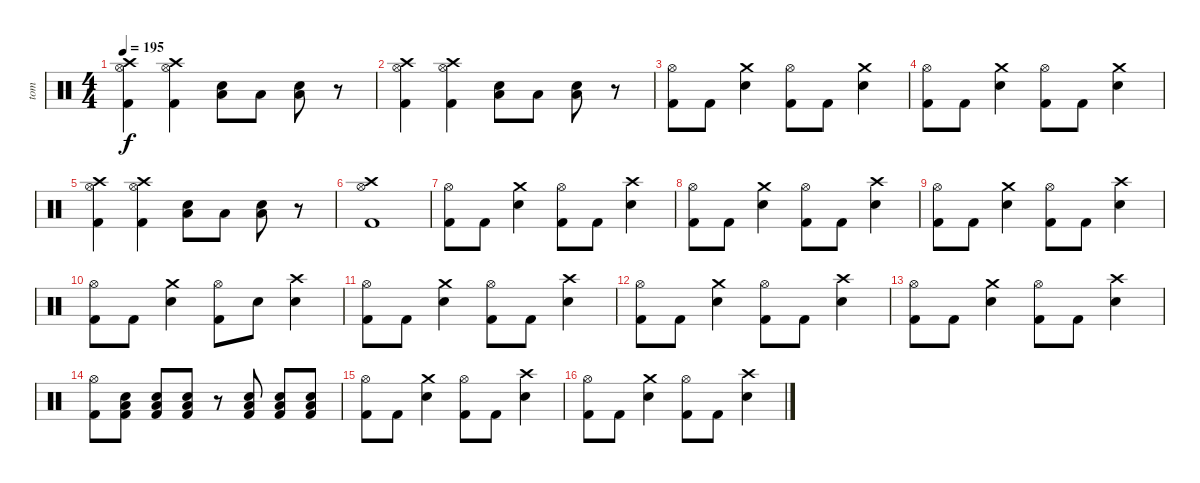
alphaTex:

\track ("tom" "tom") {instrument percussion}
\staff {score}
\articulation defaults
\ts (4 4)
\tempo 195
\clef neutral
\ks c
("Crash high (hit)" "Hi-Hat (open)" "Kick (hit) 2").4{dy f} ("Crash high (hit)" "Hi-Hat (open)" "Kick (hit) 2").4 ("Low Tom (hit)" "Electric Snare (hit)").8 "Low Tom (hit)".8 ("Low Tom (hit)" "Electric Snare (hit)").8 r.8 |
("Crash high (hit)" "Hi-Hat (open)" "Kick (hit) 2").4 ("Crash high (hit)" "Hi-Hat (open)" "Kick (hit) 2").4 ("Low Tom (hit)" "Electric Snare (hit)").8 "Low Tom (hit)".8 ("Low Tom (hit)" "Electric Snare (hit)").8 r.8 |
("Hi-Hat (open)" "Kick (hit) 2").8 "Kick (hit) 2".8 ("Crash medium (hit)" "Electric Snare (hit)").4 ("Hi-Hat (open)" "Kick (hit) 2").8 "Kick (hit) 2".8 ("Crash medium (hit)" "Electric Snare (hit)").4 |
("Hi-Hat (open)" "Kick (hit) 2").8 "Kick (hit) 2".8 ("Crash medium (hit)" "Electric Snare (hit)").4 ("Hi-Hat (open)" "Kick (hit) 2").8 "Kick (hit) 2".8 ("Crash medium (hit)" "Electric Snare (hit)").4 |
("Crash high (hit)" "Hi-Hat (open)" "Kick (hit) 2").4 ("Crash high (hit)" "Hi-Hat (open)" "Kick (hit) 2").4 ("Low Tom (hit)" "Electric Snare (hit)").8 "Low Tom (hit)".8 ("Low Tom (hit)" "Electric Snare (hit)").8 r.8 |
("Crash high (hit)" "Hi-Hat (open)" "Kick (hit) 2").1 |
("Hi-Hat (open)" "Kick (hit) 2").8 "Kick (hit) 2".8 ("Crash medium (hit)" "Electric Snare (hit)").4 ("Hi-Hat (open)" "Kick (hit) 2").8 "Kick (hit) 2".8 ("Crash high (hit)" "Electric Snare (hit)").4 |
("Hi-Hat (open)" "Kick (hit) 2").8 "Kick (hit) 2".8 ("Crash medium (hit)" "Electric Snare (hit)").4 ("Hi-Hat (open)" "Kick (hit) 2").8 "Kick (hit) 2".8 ("Crash high (hit)" "Electric Snare (hit)").4 |
("Hi-Hat (open)" "Kick (hit) 2").8 "Kick (hit) 2".8 ("Crash medium (hit)" "Electric Snare (hit)").4 ("Hi-Hat (open)" "Kick (hit) 2").8 "Kick (hit) 2".8 ("Crash high (hit)" "Electric Snare (hit)").4 |
("Hi-Hat (open)" "Kick (hit) 2").8 "Kick (hit) 2".8 ("Crash medium (hit)" "Electric Snare (hit)").4 ("Hi-Hat (open)" "Kick (hit) 2").8 "Electric Snare (hit)".8 ("Crash high (hit)" "Electric Snare (hit)").4 |
("Hi-Hat (open)" "Kick (hit) 2").8 "Kick (hit) 2".8 ("Crash medium (hit)" "Electric Snare (hit)").4 ("Hi-Hat (open)" "Kick (hit) 2").8 "Kick (hit) 2".8 ("Crash high (hit)" "Electric Snare (hit)").4 |
("Hi-Hat (open)" "Kick (hit) 2").8 "Kick (hit) 2".8 ("Crash medium (hit)" "Electric Snare (hit)").4 ("Hi-Hat (open)" "Kick (hit) 2").8 "Kick (hit) 2".8 ("Crash high (hit)" "Electric Snare (hit)").4 |
("Hi-Hat (open)" "Kick (hit) 2").8 "Kick (hit) 2".8 ("Crash medium (hit)" "Electric Snare (hit)").4 ("Hi-Hat (open)" "Kick (hit) 2").8 "Kick (hit) 2".8 ("Crash high (hit)" "Electric Snare (hit)").4 |
("Hi-Hat (open)" "Kick (hit) 2").8 ("Electric Snare (hit)" "Low Tom (hit)" "Kick (hit) 2").8 ("Electric Snare (hit)" "Low Tom (hit)" "Kick (hit) 2").8 ("Electric Snare (hit)" "Low Tom (hit)" "Kick (hit) 2").8 r.8 ("Electric Snare (hit)" "Low Tom (hit)" "Kick (hit) 2").8 ("Electric Snare (hit)" "Low Tom (hit)" "Kick (hit) 2").8 ("Electric Snare (hit)" "Low Tom (hit)" "Kick (hit) 2").8 |
("Hi-Hat (open)" "Kick (hit) 2").8 "Kick (hit) 2".8 ("Crash medium (hit)" "Electric Snare (hit)").4 ("Hi-Hat (open)" "Kick (hit) 2").8 "Kick (hit) 2".8 ("Crash high (hit)" "Electric Snare (hit)").4 |
("Hi-Hat (open)" "Kick (hit) 2").8 "Kick (hit) 2".8 ("Crash medium (hit)" "Electric Snare (hit)").4 ("Hi-Hat (open)" "Kick (hit) 2").8 "Kick (hit) 2".8 ("Crash high (hit)" "Electric Snare (hit)").4
